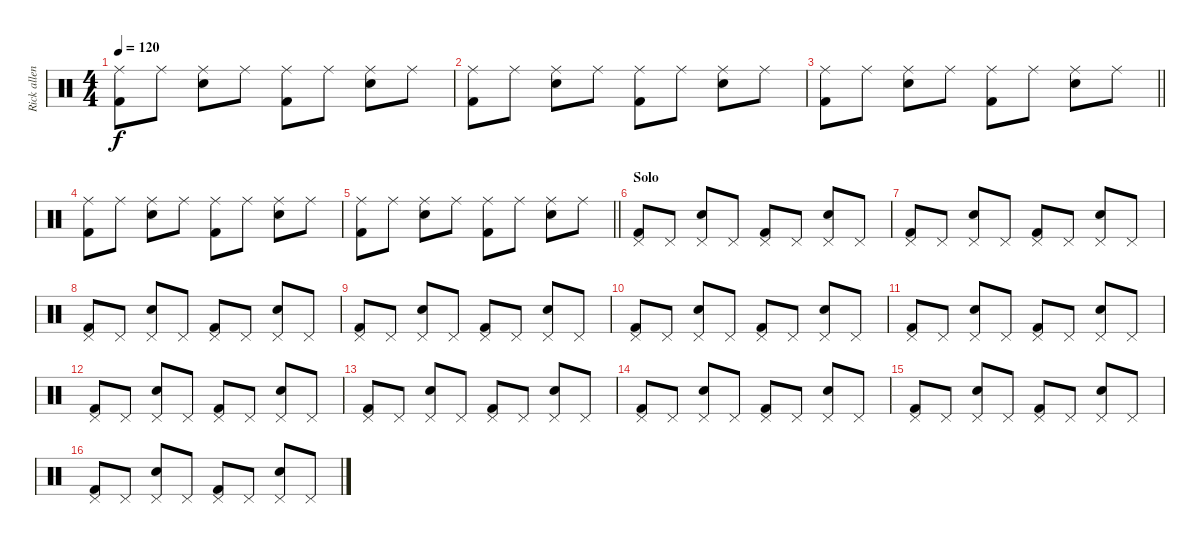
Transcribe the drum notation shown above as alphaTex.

\track ("Rick allen" "Rick allen") {instrument percussion}
\staff {score}
\articulation defaults
\ts (4 4)
\tempo 120
\clef neutral
\ks c
("Ride (middle)" "Kick (hit) 2").8{dy f} "Ride (middle)".8 ("Ride (middle)" "Snare (hit) 2").8 "Ride (middle)".8 ("Ride (middle)" "Kick (hit) 2").8 "Ride (middle)".8 ("Ride (middle)" "Snare (hit) 2").8 "Ride (middle)".8 |
("Ride (middle)" "Kick (hit) 2").8 "Ride (middle)".8 ("Ride (middle)" "Snare (hit) 2").8 "Ride (middle)".8 ("Ride (middle)" "Kick (hit) 2").8 "Ride (middle)".8 ("Ride (middle)" "Snare (hit) 2").8 "Ride (middle)".8 |
\barLineRight lightlight
("Ride (middle)" "Kick (hit) 2").8 "Ride (middle)".8 ("Ride (middle)" "Snare (hit) 2").8 "Ride (middle)".8 ("Ride (middle)" "Kick (hit) 2").8 "Ride (middle)".8 ("Ride (middle)" "Snare (hit) 2").8 "Ride (middle)".8 |
("Ride (middle)" "Kick (hit) 2").8 "Ride (middle)".8 ("Ride (middle)" "Snare (hit) 2").8 "Ride (middle)".8 ("Ride (middle)" "Kick (hit) 2").8 "Ride (middle)".8 ("Ride (middle)" "Snare (hit) 2").8 "Ride (middle)".8 |
\barLineRight lightlight
("Ride (middle)" "Kick (hit) 2").8 "Ride (middle)".8 ("Ride (middle)" "Snare (hit) 2").8 "Ride (middle)".8 ("Ride (middle)" "Kick (hit) 2").8 "Ride (middle)".8 ("Ride (middle)" "Snare (hit) 2").8 "Ride (middle)".8 |
\section ("" "Solo")
("Pedal Hi-Hat (hit)" "Kick (hit) 2").8 "Pedal Hi-Hat (hit)".8 ("Pedal Hi-Hat (hit)" "Snare (hit) 2").8 "Pedal Hi-Hat (hit)".8 ("Pedal Hi-Hat (hit)" "Kick (hit) 2").8 "Pedal Hi-Hat (hit)".8 ("Pedal Hi-Hat (hit)" "Snare (hit) 2").8 "Pedal Hi-Hat (hit)".8 |
("Pedal Hi-Hat (hit)" "Kick (hit) 2").8 "Pedal Hi-Hat (hit)".8 ("Pedal Hi-Hat (hit)" "Snare (hit) 2").8 "Pedal Hi-Hat (hit)".8 ("Pedal Hi-Hat (hit)" "Kick (hit) 2").8 "Pedal Hi-Hat (hit)".8 ("Pedal Hi-Hat (hit)" "Snare (hit) 2").8 "Pedal Hi-Hat (hit)".8 |
("Pedal Hi-Hat (hit)" "Kick (hit) 2").8 "Pedal Hi-Hat (hit)".8 ("Pedal Hi-Hat (hit)" "Snare (hit) 2").8 "Pedal Hi-Hat (hit)".8 ("Pedal Hi-Hat (hit)" "Kick (hit) 2").8 "Pedal Hi-Hat (hit)".8 ("Pedal Hi-Hat (hit)" "Snare (hit) 2").8 "Pedal Hi-Hat (hit)".8 |
("Pedal Hi-Hat (hit)" "Kick (hit) 2").8 "Pedal Hi-Hat (hit)".8 ("Pedal Hi-Hat (hit)" "Snare (hit) 2").8 "Pedal Hi-Hat (hit)".8 ("Pedal Hi-Hat (hit)" "Kick (hit) 2").8 "Pedal Hi-Hat (hit)".8 ("Pedal Hi-Hat (hit)" "Snare (hit) 2").8 "Pedal Hi-Hat (hit)".8 |
("Pedal Hi-Hat (hit)" "Kick (hit) 2").8 "Pedal Hi-Hat (hit)".8 ("Pedal Hi-Hat (hit)" "Snare (hit) 2").8 "Pedal Hi-Hat (hit)".8 ("Pedal Hi-Hat (hit)" "Kick (hit) 2").8 "Pedal Hi-Hat (hit)".8 ("Pedal Hi-Hat (hit)" "Snare (hit) 2").8 "Pedal Hi-Hat (hit)".8 |
("Pedal Hi-Hat (hit)" "Kick (hit) 2").8 "Pedal Hi-Hat (hit)".8 ("Pedal Hi-Hat (hit)" "Snare (hit) 2").8 "Pedal Hi-Hat (hit)".8 ("Pedal Hi-Hat (hit)" "Kick (hit) 2").8 "Pedal Hi-Hat (hit)".8 ("Pedal Hi-Hat (hit)" "Snare (hit) 2").8 "Pedal Hi-Hat (hit)".8 |
("Pedal Hi-Hat (hit)" "Kick (hit) 2").8 "Pedal Hi-Hat (hit)".8 ("Pedal Hi-Hat (hit)" "Snare (hit) 2").8 "Pedal Hi-Hat (hit)".8 ("Pedal Hi-Hat (hit)" "Kick (hit) 2").8 "Pedal Hi-Hat (hit)".8 ("Pedal Hi-Hat (hit)" "Snare (hit) 2").8 "Pedal Hi-Hat (hit)".8 |
("Pedal Hi-Hat (hit)" "Kick (hit) 2").8 "Pedal Hi-Hat (hit)".8 ("Pedal Hi-Hat (hit)" "Snare (hit) 2").8 "Pedal Hi-Hat (hit)".8 ("Pedal Hi-Hat (hit)" "Kick (hit) 2").8 "Pedal Hi-Hat (hit)".8 ("Pedal Hi-Hat (hit)" "Snare (hit) 2").8 "Pedal Hi-Hat (hit)".8 |
("Pedal Hi-Hat (hit)" "Kick (hit) 2").8 "Pedal Hi-Hat (hit)".8 ("Pedal Hi-Hat (hit)" "Snare (hit) 2").8 "Pedal Hi-Hat (hit)".8 ("Pedal Hi-Hat (hit)" "Kick (hit) 2").8 "Pedal Hi-Hat (hit)".8 ("Pedal Hi-Hat (hit)" "Snare (hit) 2").8 "Pedal Hi-Hat (hit)".8 |
("Pedal Hi-Hat (hit)" "Kick (hit) 2").8 "Pedal Hi-Hat (hit)".8 ("Pedal Hi-Hat (hit)" "Snare (hit) 2").8 "Pedal Hi-Hat (hit)".8 ("Pedal Hi-Hat (hit)" "Kick (hit) 2").8 "Pedal Hi-Hat (hit)".8 ("Pedal Hi-Hat (hit)" "Snare (hit) 2").8 "Pedal Hi-Hat (hit)".8 |
("Pedal Hi-Hat (hit)" "Kick (hit) 2").8 "Pedal Hi-Hat (hit)".8 ("Pedal Hi-Hat (hit)" "Snare (hit) 2").8 "Pedal Hi-Hat (hit)".8 ("Pedal Hi-Hat (hit)" "Kick (hit) 2").8 "Pedal Hi-Hat (hit)".8 ("Pedal Hi-Hat (hit)" "Snare (hit) 2").8 "Pedal Hi-Hat (hit)".8
